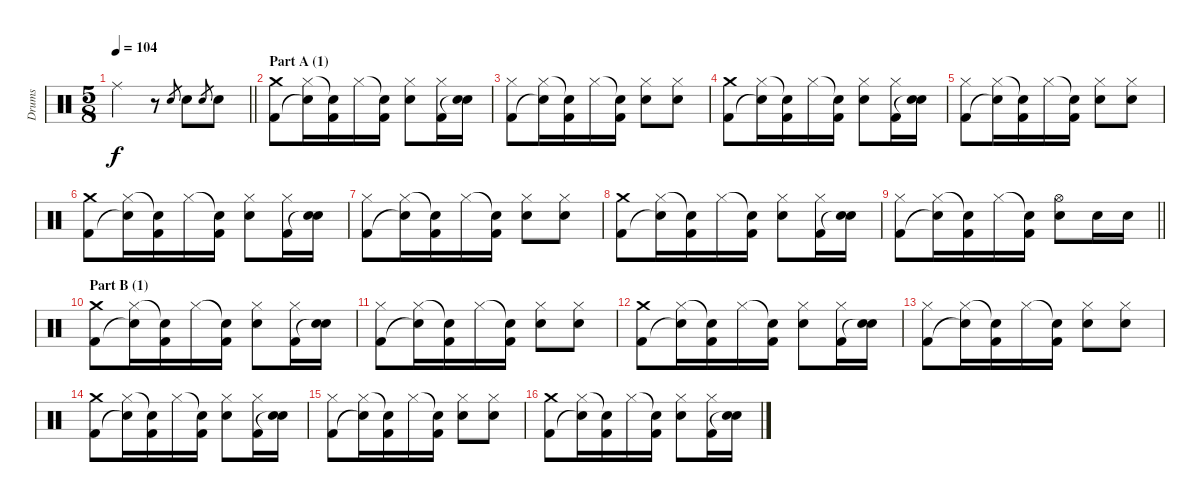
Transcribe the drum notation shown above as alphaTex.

\track ("Drums" "Drums") {instrument percussion}
\staff {score}
\articulation defaults
\ts (5 8)
\tempo 104
\clef neutral
\barLineRight lightlight
\ks c "Ride (middle)".4{dy f}
r.8 "Electric Snare (hit)".8{gr} "Electric Snare (hit)".8 "Electric Snare (hit)".8{gr} "Electric Snare (hit)".8 |
\section ("" "Part A (1)")
("Crash medium (hit)" "Kick (hit) 2").8 ("Hi-Hat (closed)" "Snare (hit)"{t}).16 ("Snare (hit)"{t} "Kick (hit) 2").16 "Hi-Hat (closed)".16 ("Snare (hit)"{t} "Kick (hit) 2").16 ("Hi-Hat (closed)" "Electric Snare (hit)").8 ("Hi-Hat (closed)" "Kick (hit) 2").16 ("Electric Snare (hit)" "Snare (hit)"{t}).16 |
("Hi-Hat (closed)" "Kick (hit) 2").8 ("Hi-Hat (closed)" "Snare (hit)"{t}).16 ("Snare (hit)"{t} "Kick (hit) 2").16 "Hi-Hat (closed)".16 ("Snare (hit)"{t} "Kick (hit) 2").16 ("Hi-Hat (closed)" "Electric Snare (hit)").8 ("Hi-Hat (closed)" "Electric Snare (hit)").8 |
("Crash medium (hit)" "Kick (hit) 2").8 ("Hi-Hat (closed)" "Snare (hit)"{t}).16 ("Snare (hit)"{t} "Kick (hit) 2").16 "Hi-Hat (closed)".16 ("Snare (hit)"{t} "Kick (hit) 2").16 ("Hi-Hat (closed)" "Electric Snare (hit)").8 ("Hi-Hat (closed)" "Kick (hit) 2").16 ("Electric Snare (hit)" "Snare (hit)"{t}).16 |
("Hi-Hat (closed)" "Kick (hit) 2").8 ("Hi-Hat (closed)" "Snare (hit)"{t}).16 ("Snare (hit)"{t} "Kick (hit) 2").16 "Hi-Hat (closed)".16 ("Snare (hit)"{t} "Kick (hit) 2").16 ("Hi-Hat (closed)" "Electric Snare (hit)").8 ("Hi-Hat (closed)" "Electric Snare (hit)").8 |
("Crash medium (hit)" "Kick (hit) 2").8 ("Hi-Hat (closed)" "Snare (hit)"{t}).16 ("Snare (hit)"{t} "Kick (hit) 2").16 "Hi-Hat (closed)".16 ("Snare (hit)"{t} "Kick (hit) 2").16 ("Hi-Hat (closed)" "Electric Snare (hit)").8 ("Hi-Hat (closed)" "Kick (hit) 2").16 ("Electric Snare (hit)" "Snare (hit)"{t}).16 |
("Hi-Hat (closed)" "Kick (hit) 2").8 ("Hi-Hat (closed)" "Snare (hit)"{t}).16 ("Snare (hit)"{t} "Kick (hit) 2").16 "Hi-Hat (closed)".16 ("Snare (hit)"{t} "Kick (hit) 2").16 ("Hi-Hat (closed)" "Electric Snare (hit)").8 ("Hi-Hat (closed)" "Electric Snare (hit)").8 |
("Crash medium (hit)" "Kick (hit) 2").8 ("Hi-Hat (closed)" "Snare (hit)"{t}).16 ("Snare (hit)"{t} "Kick (hit) 2").16 "Hi-Hat (closed)".16 ("Snare (hit)"{t} "Kick (hit) 2").16 ("Hi-Hat (closed)" "Electric Snare (hit)").8 ("Hi-Hat (closed)" "Kick (hit) 2").16 ("Electric Snare (hit)" "Snare (hit)"{t}).16 |
\barLineRight lightlight
("Hi-Hat (closed)" "Kick (hit) 2").8 ("Hi-Hat (closed)" "Snare (hit)"{t}).16 ("Snare (hit)"{t} "Kick (hit) 2").16 "Hi-Hat (closed)".16 ("Snare (hit)"{t} "Kick (hit) 2").16 ("Hi-Hat (open)" "Electric Snare (hit)").8 "Electric Snare (hit)".16 "Electric Snare (hit)".16 |
\section ("" "Part B (1)")
("Crash medium (hit)" "Kick (hit) 2").8 ("Hi-Hat (closed)" "Snare (hit)"{t}).16 ("Snare (hit)"{t} "Kick (hit) 2").16 "Hi-Hat (closed)".16 ("Snare (hit)"{t} "Kick (hit) 2").16 ("Hi-Hat (closed)" "Electric Snare (hit)").8 ("Hi-Hat (closed)" "Kick (hit) 2").16 ("Electric Snare (hit)" "Snare (hit)"{t}).16 |
("Hi-Hat (closed)" "Kick (hit) 2").8 ("Hi-Hat (closed)" "Snare (hit)"{t}).16 ("Snare (hit)"{t} "Kick (hit) 2").16 "Hi-Hat (closed)".16 ("Snare (hit)"{t} "Kick (hit) 2").16 ("Hi-Hat (closed)" "Electric Snare (hit)").8 ("Hi-Hat (closed)" "Electric Snare (hit)").8 |
("Crash medium (hit)" "Kick (hit) 2").8 ("Hi-Hat (closed)" "Snare (hit)"{t}).16 ("Snare (hit)"{t} "Kick (hit) 2").16 "Hi-Hat (closed)".16 ("Snare (hit)"{t} "Kick (hit) 2").16 ("Hi-Hat (closed)" "Electric Snare (hit)").8 ("Hi-Hat (closed)" "Kick (hit) 2").16 ("Electric Snare (hit)" "Snare (hit)"{t}).16 |
("Hi-Hat (closed)" "Kick (hit) 2").8 ("Hi-Hat (closed)" "Snare (hit)"{t}).16 ("Snare (hit)"{t} "Kick (hit) 2").16 "Hi-Hat (closed)".16 ("Snare (hit)"{t} "Kick (hit) 2").16 ("Hi-Hat (closed)" "Electric Snare (hit)").8 ("Hi-Hat (closed)" "Electric Snare (hit)").8 |
("Crash medium (hit)" "Kick (hit) 2").8 ("Hi-Hat (closed)" "Snare (hit)"{t}).16 ("Snare (hit)"{t} "Kick (hit) 2").16 "Hi-Hat (closed)".16 ("Snare (hit)"{t} "Kick (hit) 2").16 ("Hi-Hat (closed)" "Electric Snare (hit)").8 ("Hi-Hat (closed)" "Kick (hit) 2").16 ("Electric Snare (hit)" "Snare (hit)"{t}).16 |
("Hi-Hat (closed)" "Kick (hit) 2").8 ("Hi-Hat (closed)" "Snare (hit)"{t}).16 ("Snare (hit)"{t} "Kick (hit) 2").16 "Hi-Hat (closed)".16 ("Snare (hit)"{t} "Kick (hit) 2").16 ("Hi-Hat (closed)" "Electric Snare (hit)").8 ("Hi-Hat (closed)" "Electric Snare (hit)").8 |
("Crash medium (hit)" "Kick (hit) 2").8 ("Hi-Hat (closed)" "Snare (hit)"{t}).16 ("Snare (hit)"{t} "Kick (hit) 2").16 "Hi-Hat (closed)".16 ("Snare (hit)"{t} "Kick (hit) 2").16 ("Hi-Hat (closed)" "Electric Snare (hit)").8 ("Hi-Hat (closed)" "Kick (hit) 2").16 ("Electric Snare (hit)" "Snare (hit)"{t}).16
